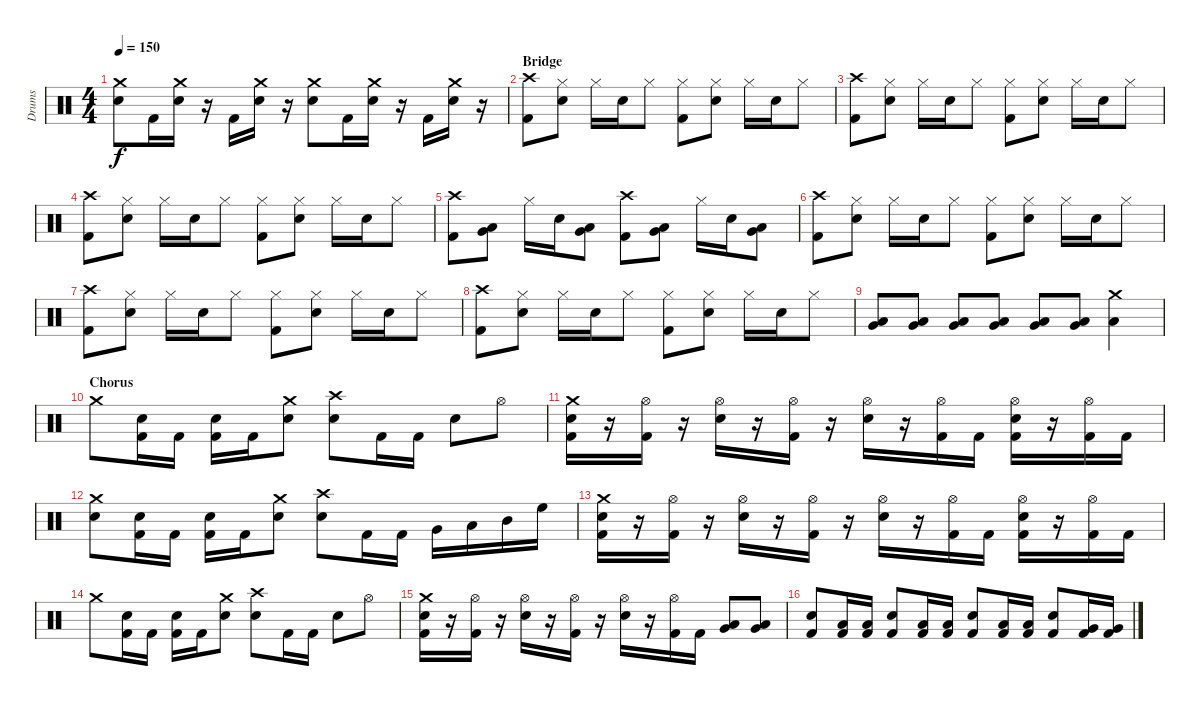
\track ("Drums" "Drums") {instrument percussion}
\staff {score}
\articulation defaults
\ts (4 4)
\tempo 150
\clef neutral
\ks c
("Snare (hit) 2" "Crash medium (hit)").8{dy f} "Kick (hit) 2".16 ("Snare (hit) 2" "Crash medium (hit)").16 r.16 "Kick (hit) 2".16 ("Snare (hit) 2" "Crash medium (hit)").16 r.16 ("Snare (hit) 2" "Crash medium (hit)").8 "Kick (hit) 2".16 ("Snare (hit) 2" "Crash medium (hit)").16 r.16 "Kick (hit) 2".16 ("Snare (hit) 2" "Crash medium (hit)").16 r.16 |
\section ("" "Bridge")
("Kick (hit) 2" "Crash high (hit)").8 ("Snare (hit) 2" "Hi-Hat (closed)").8 "Hi-Hat (closed)".16 "Snare (hit) 2".16 "Hi-Hat (closed)".8 ("Kick (hit) 2" "Hi-Hat (closed)").8 ("Snare (hit) 2" "Hi-Hat (closed)").8 "Hi-Hat (closed)".16 "Snare (hit) 2".16 "Hi-Hat (closed)".8 |
("Kick (hit) 2" "Crash high (hit)").8 ("Snare (hit) 2" "Hi-Hat (closed)").8 "Hi-Hat (closed)".16 "Snare (hit) 2".16 "Hi-Hat (closed)".8 ("Kick (hit) 2" "Hi-Hat (closed)").8 ("Snare (hit) 2" "Hi-Hat (closed)").8 "Hi-Hat (closed)".16 "Snare (hit) 2".16 "Hi-Hat (closed)".8 |
("Kick (hit) 2" "Crash high (hit)").8 ("Snare (hit) 2" "Hi-Hat (closed)").8 "Hi-Hat (closed)".16 "Snare (hit) 2".16 "Hi-Hat (closed)".8 ("Kick (hit) 2" "Hi-Hat (closed)").8 ("Snare (hit) 2" "Hi-Hat (closed)").8 "Hi-Hat (closed)".16 "Snare (hit) 2".16 "Hi-Hat (closed)".8 |
("Kick (hit) 2" "Crash high (hit)").8 ("Low Tom (hit)" "Very Low Tom (hit)").8 "Hi-Hat (closed)".16 "Snare (hit) 2".16 ("Low Tom (hit)" "Very Low Tom (hit)").8 ("Kick (hit) 2" "Crash high (hit)").8 ("Low Tom (hit)" "Very Low Tom (hit)").8 "Hi-Hat (closed)".16 "Snare (hit) 2".16 ("Low Tom (hit)" "Very Low Tom (hit)").8 |
("Kick (hit) 2" "Crash high (hit)").8 ("Snare (hit) 2" "Hi-Hat (closed)").8 "Hi-Hat (closed)".16 "Snare (hit) 2".16 "Hi-Hat (closed)".8 ("Kick (hit) 2" "Hi-Hat (closed)").8 ("Snare (hit) 2" "Hi-Hat (closed)").8 "Hi-Hat (closed)".16 "Snare (hit) 2".16 "Hi-Hat (closed)".8 |
("Kick (hit) 2" "Crash high (hit)").8 ("Snare (hit) 2" "Hi-Hat (closed)").8 "Hi-Hat (closed)".16 "Snare (hit) 2".16 "Hi-Hat (closed)".8 ("Kick (hit) 2" "Hi-Hat (closed)").8 ("Snare (hit) 2" "Hi-Hat (closed)").8 "Hi-Hat (closed)".16 "Snare (hit) 2".16 "Hi-Hat (closed)".8 |
("Kick (hit) 2" "Crash high (hit)").8 ("Snare (hit) 2" "Hi-Hat (closed)").8 "Hi-Hat (closed)".16 "Snare (hit) 2".16 "Hi-Hat (closed)".8 ("Kick (hit) 2" "Hi-Hat (closed)").8 ("Snare (hit) 2" "Hi-Hat (closed)").8 "Hi-Hat (closed)".16 "Snare (hit) 2".16 "Hi-Hat (closed)".8 |
("Low Tom (hit)" "Very Low Tom (hit)").8 ("Low Tom (hit)" "Very Low Tom (hit)").8 ("Low Tom (hit)" "Very Low Tom (hit)").8 ("Low Tom (hit)" "Very Low Tom (hit)").8 ("Low Tom (hit)" "Very Low Tom (hit)").8 ("Low Tom (hit)" "Very Low Tom (hit)").8 ("Low Tom (hit)" "Crash medium (hit)").4 |
\section ("" "Chorus")
"Crash medium (hit)".8 ("Kick (hit) 2" "Snare (hit) 2").16 "Kick (hit) 2".16 ("Kick (hit) 2" "Snare (hit) 2").16 "Kick (hit) 2".16 ("Snare (hit) 2" "Crash medium (hit)").8 ("Snare (hit) 2" "Crash high (hit)").8 "Kick (hit) 2".16 "Kick (hit) 2".16 "Snare (hit) 2".8 "Hi-Hat (open)".8 |
("Kick (hit) 2" "Snare (hit) 2" "Crash medium (hit)").16 r.16 ("Kick (hit) 2" "Hi-Hat (open)").16 r.16 ("Snare (hit) 2" "Hi-Hat (open)").16 r.16 ("Kick (hit) 2" "Hi-Hat (open)").16 r.16 ("Snare (hit) 2" "Hi-Hat (open)").16 r.16 ("Kick (hit) 2" "Hi-Hat (open)").16 "Kick (hit) 2".16 ("Kick (hit) 2" "Snare (hit) 2" "Hi-Hat (open)").16 r.16 ("Kick (hit) 2" "Hi-Hat (open)").16 "Kick (hit) 2".16 |
("Snare (hit) 2" "Crash medium (hit)").8 ("Kick (hit) 2" "Snare (hit) 2").16 "Kick (hit) 2".16 ("Kick (hit) 2" "Snare (hit) 2").16 "Kick (hit) 2".16 ("Snare (hit) 2" "Crash medium (hit)").8 ("Snare (hit) 2" "Crash high (hit)").8 "Kick (hit) 2".16 "Kick (hit) 2".16 "Very Low Tom (hit)".16 "Low Tom (hit)".16 "Mid Tom (hit)".16 "High Floor Tom (hit)".16 |
("Kick (hit) 2" "Snare (hit) 2" "Crash medium (hit)").16 r.16 ("Kick (hit) 2" "Hi-Hat (open)").16 r.16 ("Snare (hit) 2" "Hi-Hat (open)").16 r.16 ("Kick (hit) 2" "Hi-Hat (open)").16 r.16 ("Snare (hit) 2" "Hi-Hat (open)").16 r.16 ("Kick (hit) 2" "Hi-Hat (open)").16 "Kick (hit) 2".16 ("Kick (hit) 2" "Snare (hit) 2" "Hi-Hat (open)").16 r.16 ("Kick (hit) 2" "Hi-Hat (open)").16 "Kick (hit) 2".16 |
"Crash medium (hit)".8 ("Kick (hit) 2" "Snare (hit) 2").16 "Kick (hit) 2".16 ("Kick (hit) 2" "Snare (hit) 2").16 "Kick (hit) 2".16 ("Snare (hit) 2" "Crash medium (hit)").8 ("Snare (hit) 2" "Crash high (hit)").8 "Kick (hit) 2".16 "Kick (hit) 2".16 "Snare (hit) 2".8 "Hi-Hat (open)".8 |
("Kick (hit) 2" "Snare (hit) 2" "Crash medium (hit)").16 r.16 ("Kick (hit) 2" "Hi-Hat (open)").16 r.16 ("Snare (hit) 2" "Hi-Hat (open)").16 r.16 ("Kick (hit) 2" "Hi-Hat (open)").16 r.16 ("Snare (hit) 2" "Hi-Hat (open)").16 r.16 ("Kick (hit) 2" "Hi-Hat (open)").16 "Kick (hit) 2".16 ("Very Low Tom (hit)" "Low Tom (hit)").8 ("Very Low Tom (hit)" "Low Tom (hit)").8 |
("Kick (hit) 2" "Snare (hit) 2").8 ("Kick (hit) 2" "Low Tom (hit)").16 ("Kick (hit) 2" "Low Tom (hit)").16 ("Kick (hit) 2" "Snare (hit) 2").8 ("Kick (hit) 2" "Low Tom (hit)").16 ("Kick (hit) 2" "Low Tom (hit)").16 ("Kick (hit) 2" "Snare (hit) 2").8 ("Kick (hit) 2" "Low Tom (hit)").16 ("Kick (hit) 2" "Low Tom (hit)").16 ("Kick (hit) 2" "Snare (hit) 2").8 ("Kick (hit) 2" "Very Low Tom (hit)").16 ("Kick (hit) 2" "Very Low Tom (hit)").16
